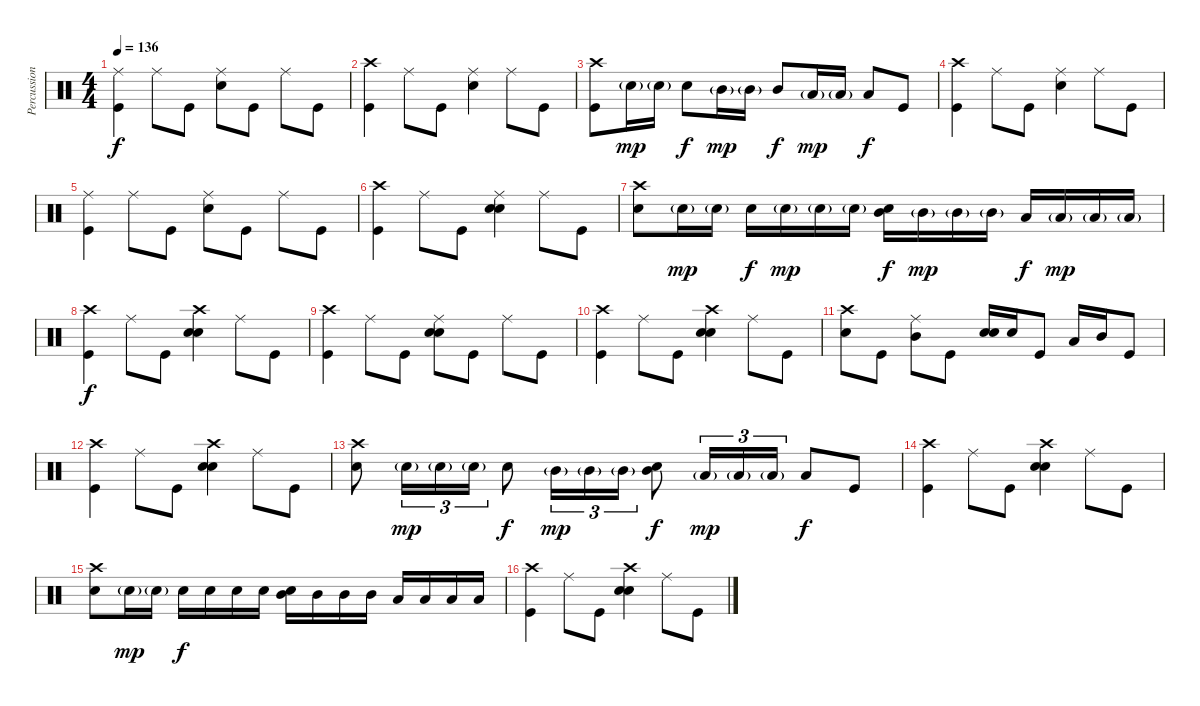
\track ("Percussion" "Percussion") {instrument percussion}
\staff {score}
\articulation defaults
\ts (4 4)
\tempo 136
\clef neutral
\ks c
("Ride (middle)" "Kick (hit)").4{dy f} "Ride (middle)".8 "Kick (hit)".8 ("Ride (middle)" "Snare (hit) 2").8 "Kick (hit)".8 "Ride (middle)".8 "Kick (hit)".8 |
("Crash high (hit)" "Kick (hit)").4 "Ride (middle)".8 "Kick (hit)".8 ("Ride (middle)" "Snare (hit) 2").4 "Ride (middle)".8 "Kick (hit)".8 |
("Crash high (hit)" "Kick (hit)").8 "Snare (hit) 2"{g}.16{dy mp} "Snare (hit) 2"{g}.16 "Snare (hit) 2".8{dy f} "Mid Tom (hit)"{g}.16{dy mp} "Mid Tom (hit)"{g}.16 "Mid Tom (hit)".8{dy f} "Low Floor Tom (hit)"{g}.16{dy mp} "Low Floor Tom (hit)"{g}.16 "Low Floor Tom (hit)".8{dy f} "Kick (hit)".8 |
("Crash high (hit)" "Kick (hit)").4 "Ride (middle)".8 "Kick (hit)".8 ("Ride (middle)" "Snare (hit) 2").4 "Ride (middle)".8 "Kick (hit)".8 |
("Ride (middle)" "Kick (hit)").4 "Ride (middle)".8 "Kick (hit)".8 ("Ride (middle)" "Snare (hit) 2").8 "Kick (hit)".8 "Ride (middle)".8 "Kick (hit)".8 |
("Crash high (hit)" "Kick (hit)").4 "Ride (middle)".8 "Kick (hit)".8 ("Hand Clap (hit)" "Ride (middle)" "Snare (hit) 2").4 "Ride (middle)".8 "Kick (hit)".8 |
("Crash high (hit)" "Snare (hit) 2").8 "Snare (hit) 2"{g}.16{dy mp} "Snare (hit) 2"{g}.16 "Snare (hit) 2".16{dy f} "Snare (hit) 2"{g}.16{dy mp} "Snare (hit) 2"{g}.16 "Snare (hit) 2"{g}.16 ("Hand Clap (hit)" "Mid Tom (hit)").16{dy f} "Mid Tom (hit)"{g}.16{dy mp} "Mid Tom (hit)"{g}.16 "Mid Tom (hit)"{g}.16 "Low Floor Tom (hit)".16{dy f} "Low Floor Tom (hit)"{g}.16{dy mp} "Low Floor Tom (hit)"{g}.16 "Low Floor Tom (hit)"{g}.16 |
("Crash high (hit)" "Kick (hit)").4{dy f} "Ride (middle)".8 "Kick (hit)".8 ("Hand Clap (hit)" "Crash high (hit)" "Snare (hit) 2").4 "Ride (middle)".8 "Kick (hit)".8 |
("Crash high (hit)" "Kick (hit)").4 "Ride (middle)".8 "Kick (hit)".8 ("Hand Clap (hit)" "Ride (middle)" "Snare (hit) 2").8 "Kick (hit)".8 "Ride (middle)".8 "Kick (hit)".8 |
("Crash high (hit)" "Kick (hit)").4 "Ride (middle)".8 "Kick (hit)".8 ("Hand Clap (hit)" "Crash high (hit)" "Snare (hit) 2").4 "Ride (middle)".8 "Kick (hit)".8 |
("Crash high (hit)" "Snare (hit) 2").8 "Kick (hit)".8 ("Ride (middle)" "Mid Tom (hit)").8 "Kick (hit)".8 ("Hand Clap (hit)" "Snare (hit) 2").16 "Snare (hit) 2".16 "Kick (hit)".8 "Low Floor Tom (hit)".16 "Mid Tom (hit)".16 "Kick (hit)".8 |
("Crash high (hit)" "Kick (hit)").4 "Ride (middle)".8 "Kick (hit)".8 ("Hand Clap (hit)" "Crash high (hit)" "Snare (hit) 2").4 "Ride (middle)".8 "Kick (hit)".8 |
("Crash high (hit)" "Snare (hit) 2").8 "Snare (hit) 2"{g}.16{tu (3 2) dy mp} "Snare (hit) 2"{g}.16{tu (3 2)} "Snare (hit) 2"{g}.16{tu (3 2)} "Snare (hit) 2".8{dy f} "Mid Tom (hit)"{g}.16{tu (3 2) dy mp} "Mid Tom (hit)"{g}.16{tu (3 2)} "Mid Tom (hit)"{g}.16{tu (3 2)} ("Hand Clap (hit)" "Mid Tom (hit)").8{dy f} "Low Floor Tom (hit)"{g}.16{tu (3 2) dy mp} "Low Floor Tom (hit)"{g}.16{tu (3 2)} "Low Floor Tom (hit)"{g}.16{tu (3 2)} "Low Floor Tom (hit)".8{dy f} "Kick (hit)".8 |
("Crash high (hit)" "Kick (hit)").4 "Ride (middle)".8 "Kick (hit)".8 ("Hand Clap (hit)" "Crash high (hit)" "Snare (hit) 2").4 "Ride (middle)".8 "Kick (hit)".8 |
("Crash high (hit)" "Snare (hit) 2").8 "Snare (hit) 2"{g}.16{dy mp} "Snare (hit) 2"{g}.16 "Snare (hit) 2".16{dy f} "Snare (hit) 2".16 "Snare (hit) 2".16 "Snare (hit) 2".16 ("Hand Clap (hit)" "Mid Tom (hit)").16 "Mid Tom (hit)".16 "Mid Tom (hit)".16 "Mid Tom (hit)".16 "Low Floor Tom (hit)".16 "Low Floor Tom (hit)".16 "Low Floor Tom (hit)".16 "Low Floor Tom (hit)".16 |
("Crash high (hit)" "Kick (hit)").4 "Ride (middle)".8 "Kick (hit)".8 ("Hand Clap (hit)" "Crash high (hit)" "Snare (hit) 2").4 "Ride (middle)".8 "Kick (hit)".8
